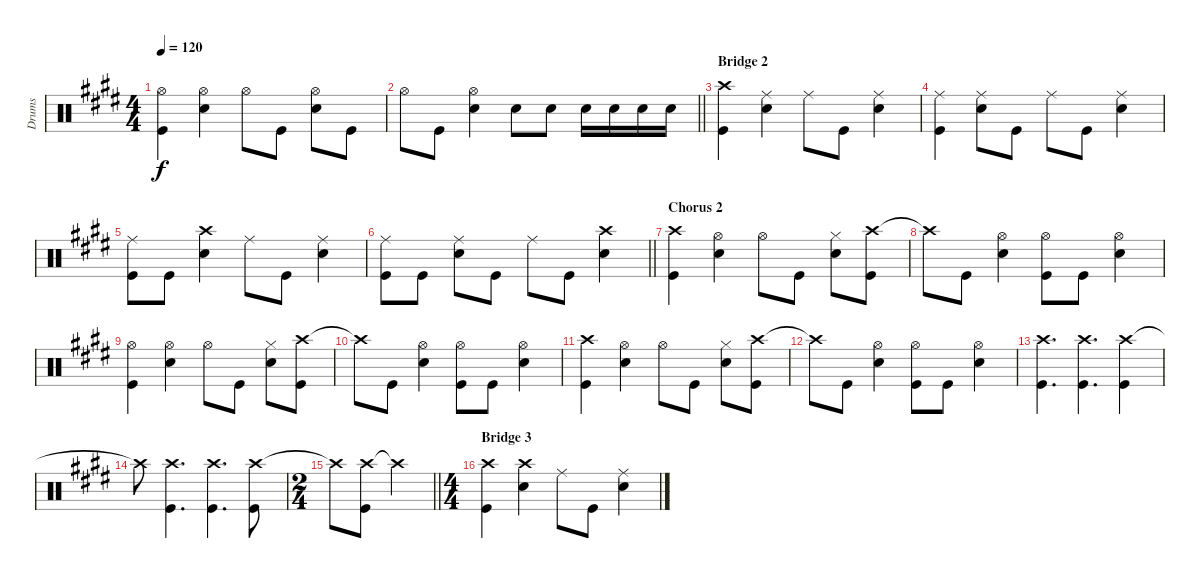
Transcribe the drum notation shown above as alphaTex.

\track ("Drums" "Drums") {instrument percussion}
\staff {score}
\articulation defaults
\ts (4 4)
\tempo 120
\clef neutral
\ks e
("Hi-Hat (open)" "Kick (hit)").4{dy f} ("Hi-Hat (open)" "Snare (hit) 2").4 "Hi-Hat (open)".8 "Kick (hit)".8 ("Hi-Hat (open)" "Snare (hit) 2").8 "Kick (hit)".8 |
\barLineRight lightlight "Hi-Hat (open)".8 "Kick (hit)".8
("Hi-Hat (open)" "Snare (hit) 2").4 "Snare (hit) 2".8 "Snare (hit) 2".8 "Snare (hit) 2".16 "Snare (hit) 2".16 "Snare (hit) 2".16 "Snare (hit) 2".16 |
\section ("" "Bridge 2")
("Crash high (hit)" "Kick (hit)").4 ("Ride (middle)" "Snare (hit) 2").4 "Ride (middle)".8 "Kick (hit)".8 ("Ride (middle)" "Snare (hit) 2").4 |
("Kick (hit)" "Ride (middle)").4 ("Ride (middle)" "Snare (hit) 2").8 "Kick (hit)".8 "Ride (middle)".8 "Kick (hit)".8 ("Snare (hit) 2" "Ride (middle)").4 |
("Ride (middle)" "Kick (hit)").8 "Kick (hit)".8 ("Crash high (hit)" "Snare (hit) 2").4 "Ride (middle)".8 "Kick (hit)".8 ("Ride (middle)" "Snare (hit) 2").4 |
\barLineRight lightlight
("Ride (middle)" "Kick (hit)").8 "Kick (hit)".8 ("Ride (middle)" "Snare (hit) 2").8 "Kick (hit)".8 "Ride (middle)".8 "Kick (hit)".8 ("Crash high (hit)" "Snare (hit) 2").4 |
\section ("" "Chorus 2")
("Crash high (hit)" "Kick (hit)").4 ("Hi-Hat (open)" "Snare (hit) 2").4 "Hi-Hat (open)".8 "Kick (hit)".8 ("Hi-Hat (closed)" "Snare (hit) 2").8 ("Crash high (hit)" "Kick (hit)").8 |
"Crash high (hit)"{t}.8 "Kick (hit)".8 ("Hi-Hat (open)" "Snare (hit) 2").4 ("Hi-Hat (open)" "Kick (hit)").8 "Kick (hit)".8 ("Hi-Hat (open)" "Snare (hit) 2").4 |
("Hi-Hat (open)" "Kick (hit)").4 ("Hi-Hat (open)" "Snare (hit) 2").4 "Hi-Hat (open)".8 "Kick (hit)".8 ("Hi-Hat (closed)" "Snare (hit) 2").8 ("Crash high (hit)" "Kick (hit)").8 |
"Crash high (hit)"{t}.8 "Kick (hit)".8 ("Hi-Hat (open)" "Snare (hit) 2").4 ("Hi-Hat (open)" "Kick (hit)").8 "Kick (hit)".8 ("Hi-Hat (open)" "Snare (hit) 2").4 |
("Crash high (hit)" "Kick (hit)").4 ("Hi-Hat (open)" "Snare (hit) 2").4 "Hi-Hat (open)".8 "Kick (hit)".8 ("Hi-Hat (closed)" "Snare (hit) 2").8 ("Crash high (hit)" "Kick (hit)").8 |
"Crash high (hit)"{t}.8 "Kick (hit)".8 ("Hi-Hat (open)" "Snare (hit) 2").4 ("Hi-Hat (open)" "Kick (hit)").8 "Kick (hit)".8 ("Hi-Hat (open)" "Snare (hit) 2").4 |
("Crash high (hit)" "Kick (hit)").4{d} ("Crash high (hit)" "Kick (hit)").4{d} ("Crash high (hit)" "Kick (hit)").4 |
"Crash high (hit)"{t}.8 ("Crash high (hit)" "Kick (hit)").4{d} ("Crash high (hit)" "Kick (hit)").4{d} ("Crash high (hit)" "Kick (hit)").8 |
\ts (2 4)
\barLineRight lightlight "Crash high (hit)"{t}.8
("Crash high (hit)" "Kick (hit)").8 "Crash high (hit)"{t}.4 |
\ts (4 4)
\section ("" "Bridge 3")
("Crash high (hit)" "Kick (hit)").4 ("Crash high (hit)" "Snare (hit) 2").4 "Ride (middle)".8 "Kick (hit)".8 ("Ride (middle)" "Snare (hit) 2").4
